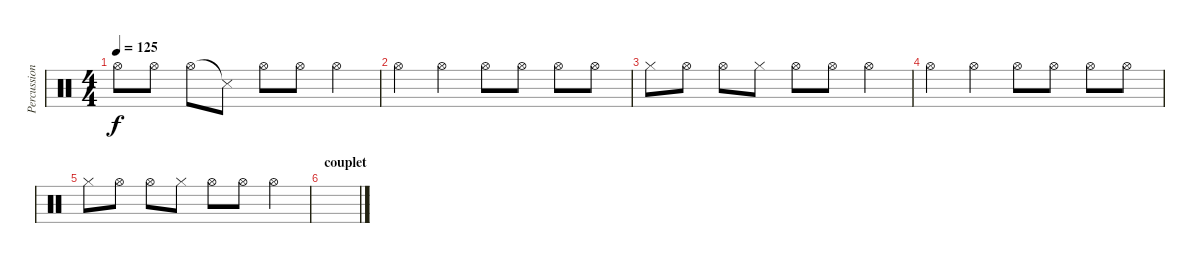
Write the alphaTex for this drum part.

\track ("Percussions" "Percussion") {instrument percussion}
\staff {score}
\articulation defaults
\ts (4 4)
\tempo 125
\clef neutral
\ks c "Hi-Hat (open)"{t}.8{dy f} "Hi-Hat (open)".8 "Hi-Hat (open)".8 "Snare (side stick) 3"{t}.8 "Hi-Hat (open)".8 "Hi-Hat (open)".8 "Hi-Hat (open)".4
|
"Hi-Hat (open)".4 "Hi-Hat (open)".4 "Hi-Hat (open)".8 "Hi-Hat (open)".8 "Hi-Hat (open)".8 "Hi-Hat (open)".8 |
"Hi-Hat (closed)".8 "Hi-Hat (open)".8 "Hi-Hat (open)".8 "Hi-Hat (closed)".8 "Hi-Hat (open)".8 "Hi-Hat (open)".8 "Hi-Hat (open)".4 |
"Hi-Hat (open)".4 "Hi-Hat (open)".4 "Hi-Hat (open)".8 "Hi-Hat (open)".8 "Hi-Hat (open)".8 "Hi-Hat (open)".8 |
"Hi-Hat (closed)".8 "Hi-Hat (open)".8 "Hi-Hat (open)".8 "Hi-Hat (closed)".8 "Hi-Hat (open)".8 "Hi-Hat (open)".8 "Hi-Hat (open)".4 |
\section ("" "couplet")
